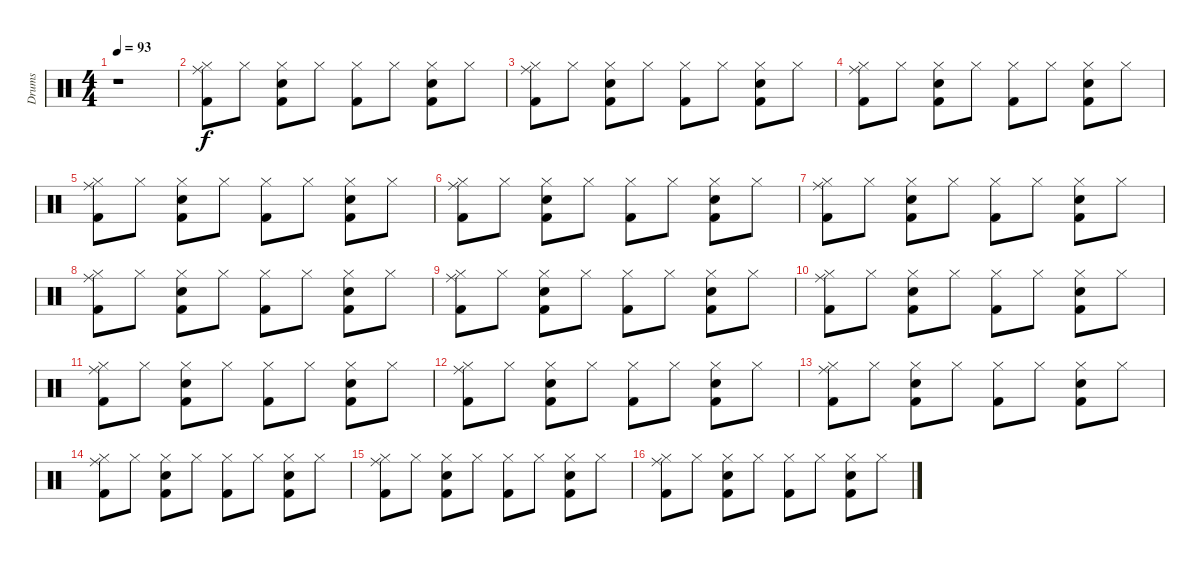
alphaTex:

\track ("Drums" "Drums") {instrument percussion}
\staff {score}
\articulation defaults
\ts (4 4)
\tempo 93
\clef neutral
\ks c
r.1{dy f} |
("Ride (middle)" "Hi-Hat (closed)" "Kick (hit) 2").8 "Hi-Hat (closed)".8 ("Hi-Hat (closed)" "Snare (hit) 2" "Kick (hit) 2").8 "Hi-Hat (closed)".8 ("Hi-Hat (closed)" "Kick (hit) 2").8 "Hi-Hat (closed)".8 ("Hi-Hat (closed)" "Snare (hit) 2" "Kick (hit) 2").8 "Hi-Hat (closed)".8 |
("Ride (middle)" "Hi-Hat (closed)" "Kick (hit) 2").8 "Hi-Hat (closed)".8 ("Hi-Hat (closed)" "Snare (hit) 2" "Kick (hit) 2").8 "Hi-Hat (closed)".8 ("Hi-Hat (closed)" "Kick (hit) 2").8 "Hi-Hat (closed)".8 ("Hi-Hat (closed)" "Snare (hit) 2" "Kick (hit) 2").8 "Hi-Hat (closed)".8 |
("Ride (middle)" "Hi-Hat (closed)" "Kick (hit) 2").8 "Hi-Hat (closed)".8 ("Hi-Hat (closed)" "Snare (hit) 2" "Kick (hit) 2").8 "Hi-Hat (closed)".8 ("Hi-Hat (closed)" "Kick (hit) 2").8 "Hi-Hat (closed)".8 ("Hi-Hat (closed)" "Snare (hit) 2" "Kick (hit) 2").8 "Hi-Hat (closed)".8 |
("Ride (middle)" "Hi-Hat (closed)" "Kick (hit) 2").8 "Hi-Hat (closed)".8 ("Hi-Hat (closed)" "Snare (hit) 2" "Kick (hit) 2").8 "Hi-Hat (closed)".8 ("Hi-Hat (closed)" "Kick (hit) 2").8 "Hi-Hat (closed)".8 ("Hi-Hat (closed)" "Snare (hit) 2" "Kick (hit) 2").8 "Hi-Hat (closed)".8 |
("Ride (middle)" "Hi-Hat (closed)" "Kick (hit) 2").8 "Hi-Hat (closed)".8 ("Hi-Hat (closed)" "Snare (hit) 2" "Kick (hit) 2").8 "Hi-Hat (closed)".8 ("Hi-Hat (closed)" "Kick (hit) 2").8 "Hi-Hat (closed)".8 ("Hi-Hat (closed)" "Snare (hit) 2" "Kick (hit) 2").8 "Hi-Hat (closed)".8 |
("Ride (middle)" "Hi-Hat (closed)" "Kick (hit) 2").8 "Hi-Hat (closed)".8 ("Hi-Hat (closed)" "Snare (hit) 2" "Kick (hit) 2").8 "Hi-Hat (closed)".8 ("Hi-Hat (closed)" "Kick (hit) 2").8 "Hi-Hat (closed)".8 ("Hi-Hat (closed)" "Snare (hit) 2" "Kick (hit) 2").8 "Hi-Hat (closed)".8 |
("Ride (middle)" "Hi-Hat (closed)" "Kick (hit) 2").8 "Hi-Hat (closed)".8 ("Hi-Hat (closed)" "Snare (hit) 2" "Kick (hit) 2").8 "Hi-Hat (closed)".8 ("Hi-Hat (closed)" "Kick (hit) 2").8 "Hi-Hat (closed)".8 ("Hi-Hat (closed)" "Snare (hit) 2" "Kick (hit) 2").8 "Hi-Hat (closed)".8 |
("Ride (middle)" "Hi-Hat (closed)" "Kick (hit) 2").8 "Hi-Hat (closed)".8 ("Hi-Hat (closed)" "Snare (hit) 2" "Kick (hit) 2").8 "Hi-Hat (closed)".8 ("Hi-Hat (closed)" "Kick (hit) 2").8 "Hi-Hat (closed)".8 ("Hi-Hat (closed)" "Snare (hit) 2" "Kick (hit) 2").8 "Hi-Hat (closed)".8 |
("Ride (middle)" "Hi-Hat (closed)" "Kick (hit) 2").8 "Hi-Hat (closed)".8 ("Hi-Hat (closed)" "Snare (hit) 2" "Kick (hit) 2").8 "Hi-Hat (closed)".8 ("Hi-Hat (closed)" "Kick (hit) 2").8 "Hi-Hat (closed)".8 ("Hi-Hat (closed)" "Snare (hit) 2" "Kick (hit) 2").8 "Hi-Hat (closed)".8 |
("Ride (middle)" "Hi-Hat (closed)" "Kick (hit) 2").8 "Hi-Hat (closed)".8 ("Hi-Hat (closed)" "Snare (hit) 2" "Kick (hit) 2").8 "Hi-Hat (closed)".8 ("Hi-Hat (closed)" "Kick (hit) 2").8 "Hi-Hat (closed)".8 ("Hi-Hat (closed)" "Snare (hit) 2" "Kick (hit) 2").8 "Hi-Hat (closed)".8 |
("Ride (middle)" "Hi-Hat (closed)" "Kick (hit) 2").8 "Hi-Hat (closed)".8 ("Hi-Hat (closed)" "Snare (hit) 2" "Kick (hit) 2").8 "Hi-Hat (closed)".8 ("Hi-Hat (closed)" "Kick (hit) 2").8 "Hi-Hat (closed)".8 ("Hi-Hat (closed)" "Snare (hit) 2" "Kick (hit) 2").8 "Hi-Hat (closed)".8 |
("Ride (middle)" "Hi-Hat (closed)" "Kick (hit) 2").8 "Hi-Hat (closed)".8 ("Hi-Hat (closed)" "Snare (hit) 2" "Kick (hit) 2").8 "Hi-Hat (closed)".8 ("Hi-Hat (closed)" "Kick (hit) 2").8 "Hi-Hat (closed)".8 ("Hi-Hat (closed)" "Snare (hit) 2" "Kick (hit) 2").8 "Hi-Hat (closed)".8 |
("Ride (middle)" "Hi-Hat (closed)" "Kick (hit) 2").8 "Hi-Hat (closed)".8 ("Hi-Hat (closed)" "Snare (hit) 2" "Kick (hit) 2").8 "Hi-Hat (closed)".8 ("Hi-Hat (closed)" "Kick (hit) 2").8 "Hi-Hat (closed)".8 ("Hi-Hat (closed)" "Snare (hit) 2" "Kick (hit) 2").8 "Hi-Hat (closed)".8 |
("Ride (middle)" "Hi-Hat (closed)" "Kick (hit) 2").8 "Hi-Hat (closed)".8 ("Hi-Hat (closed)" "Snare (hit) 2" "Kick (hit) 2").8 "Hi-Hat (closed)".8 ("Hi-Hat (closed)" "Kick (hit) 2").8 "Hi-Hat (closed)".8 ("Hi-Hat (closed)" "Snare (hit) 2" "Kick (hit) 2").8 "Hi-Hat (closed)".8 |
("Ride (middle)" "Hi-Hat (closed)" "Kick (hit) 2").8 "Hi-Hat (closed)".8 ("Hi-Hat (closed)" "Snare (hit) 2" "Kick (hit) 2").8 "Hi-Hat (closed)".8 ("Hi-Hat (closed)" "Kick (hit) 2").8 "Hi-Hat (closed)".8 ("Hi-Hat (closed)" "Snare (hit) 2" "Kick (hit) 2").8 "Hi-Hat (closed)".8
